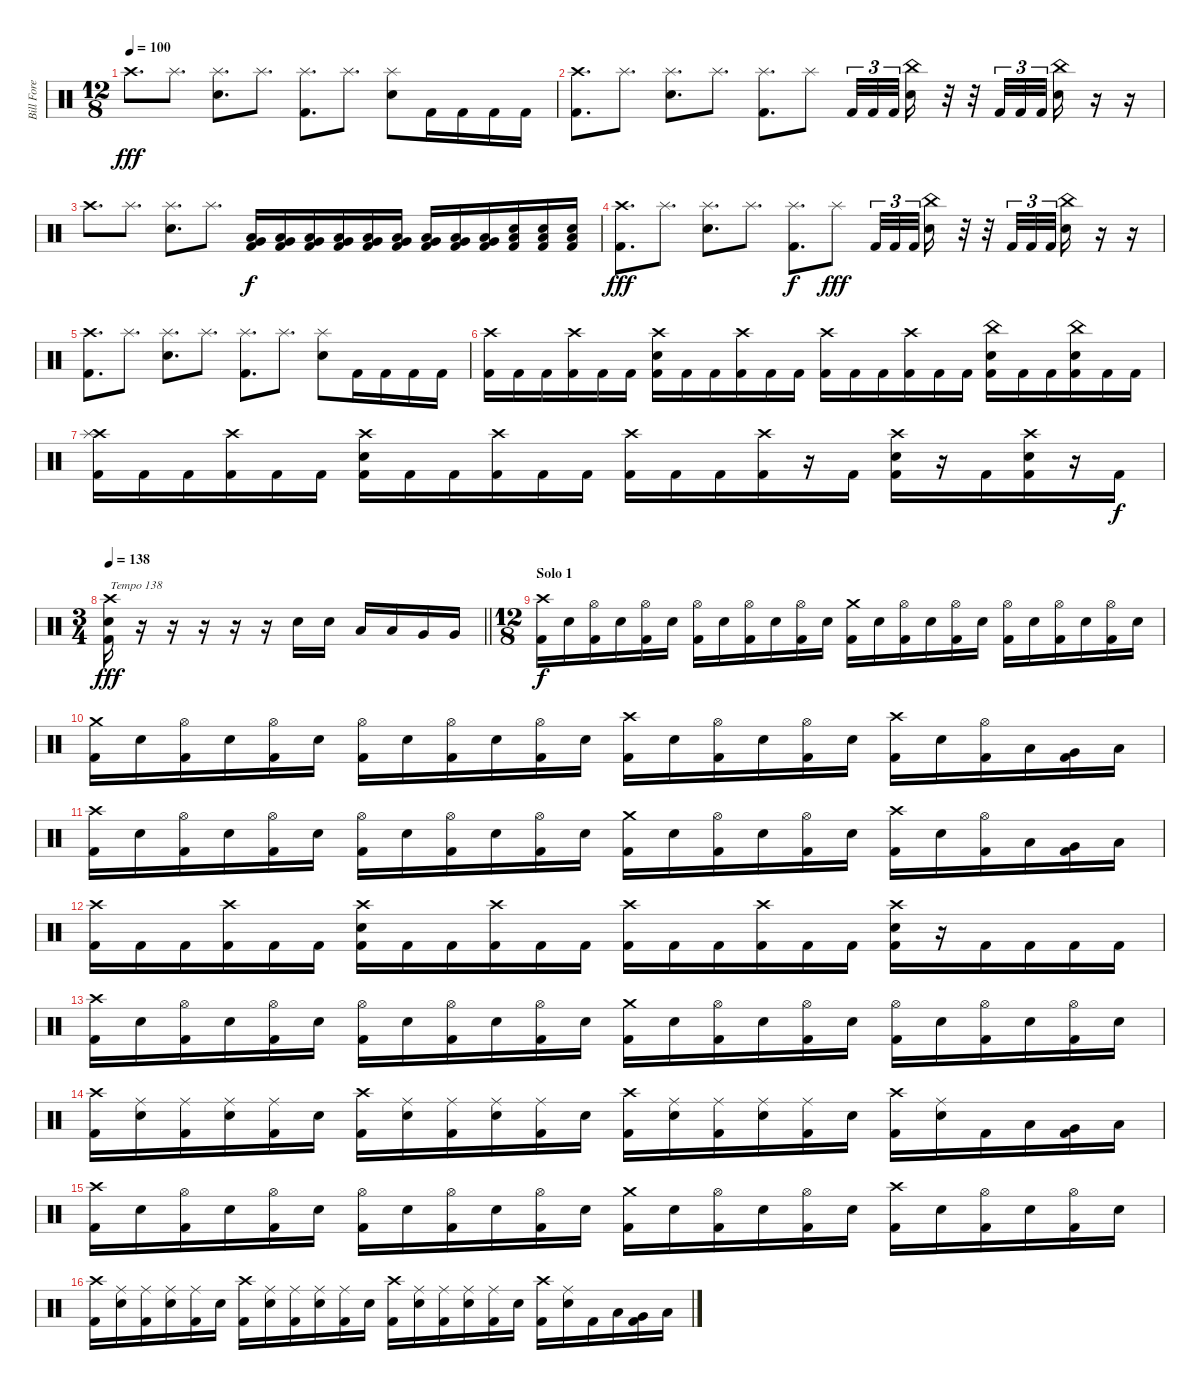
\track ("Bill Fore" "Bill Fore") {instrument percussion}
\staff {score}
\articulation defaults
\ts (12 8)
\tempo 100
\clef neutral
\ks c "Crash high (hit)".8{d dy fff} "Splash (hit)".8{d}
("Splash (hit)" "Electric Snare (hit)").8{d} "Splash (hit)".8{d} ("Splash (hit)" "Kick (hit) 2").8{d} "Splash (hit)".8{d} ("Splash (hit)" "Electric Snare (hit)").8 "Kick (hit) 2".16 "Kick (hit) 2".16 "Kick (hit) 2".16 "Kick (hit) 2".16 |
("Crash high (hit)" "Kick (hit) 2").8{d} "Splash (hit)".8{d} ("Splash (hit)" "Electric Snare (hit)").8{d} "Splash (hit)".8{d} ("Splash (hit)" "Kick (hit) 2").8{d} "Splash (hit)".8 "Kick (hit) 2".32{tu (3 2)} "Kick (hit) 2".32{tu (3 2)} "Kick (hit) 2".32{tu (3 2)} ("China (hit)" "Electric Snare (hit)").16 r.32 r.32 "Kick (hit) 2".32{tu (3 2)} "Kick (hit) 2".32{tu (3 2)} "Kick (hit) 2".32{tu (3 2) beam splitsecondary} ("China (hit)" "Electric Snare (hit)").16 r.16 r.16 |
"Crash high (hit)".8{d} "Splash (hit)".8{d} ("Splash (hit)" "Electric Snare (hit)").8{d} "Splash (hit)".8{d} ("Low Floor Tom (hit)" "Very Low Tom (hit)" "Kick (hit) 2").16{dy f} ("Low Floor Tom (hit)" "Very Low Tom (hit)" "Kick (hit) 2").16 ("Low Floor Tom (hit)" "Very Low Tom (hit)" "Kick (hit) 2").16 ("Very Low Tom (hit)" "Low Tom (hit)" "Kick (hit) 2").16 ("Very Low Tom (hit)" "Low Tom (hit)" "Kick (hit) 2").16 ("Very Low Tom (hit)" "Low Tom (hit)" "Kick (hit) 2").16 ("Low Floor Tom (hit)" "Very Low Tom (hit)" "Kick (hit) 2").16 ("Low Floor Tom (hit)" "Very Low Tom (hit)" "Kick (hit) 2").16 ("Low Floor Tom (hit)" "Very Low Tom (hit)" "Kick (hit) 2").16 ("Low Floor Tom (hit)" "Electric Snare (hit)" "Kick (hit) 2").16 ("Low Floor Tom (hit)" "Electric Snare (hit)" "Kick (hit) 2").16 ("Low Floor Tom (hit)" "Electric Snare (hit)" "Kick (hit) 2").16 |
("Crash high (hit)" "Kick (hit) 2").8{d dy fff} "Splash (hit)".8{d} ("Splash (hit)" "Electric Snare (hit)").8{d} "Splash (hit)".8{d} ("Splash (hit)" "Kick (hit) 2").8{d dy f} "Splash (hit)".8{dy fff} "Kick (hit) 2".32{tu (3 2)} "Kick (hit) 2".32{tu (3 2)} "Kick (hit) 2".32{tu (3 2)} ("China (hit)" "Electric Snare (hit)").16 r.32 r.32 "Kick (hit) 2".32{tu (3 2)} "Kick (hit) 2".32{tu (3 2)} "Kick (hit) 2".32{tu (3 2) beam splitsecondary} ("China (hit)" "Electric Snare (hit)").16 r.16 r.16 |
("Crash high (hit)" "Kick (hit) 2").8{d} "Splash (hit)".8{d} ("Splash (hit)" "Electric Snare (hit)").8{d} "Splash (hit)".8{d} ("Splash (hit)" "Kick (hit) 2").8{d} "Splash (hit)".8{d} ("Splash (hit)" "Electric Snare (hit)").8 "Kick (hit) 2".16 "Kick (hit) 2".16 "Kick (hit) 2".16 "Kick (hit) 2".16 |
("Crash high (hit)" "Kick (hit) 2").16 "Kick (hit) 2".16 "Kick (hit) 2".16 ("Crash high (hit)" "Kick (hit) 2").16 "Kick (hit) 2".16 "Kick (hit) 2".16 ("Crash high (hit)" "Electric Snare (hit)" "Kick (hit) 2").16 "Kick (hit) 2".16 "Kick (hit) 2".16 ("Crash high (hit)" "Kick (hit) 2").16 "Kick (hit) 2".16 "Kick (hit) 2".16 ("Crash high (hit)" "Kick (hit) 2").16 "Kick (hit) 2".16 "Kick (hit) 2".16 ("Crash high (hit)" "Kick (hit) 2").16 "Kick (hit) 2".16 "Kick (hit) 2".16 ("China (hit)" "Electric Snare (hit)" "Kick (hit) 2").16 "Kick (hit) 2".16 "Kick (hit) 2".16 ("China (hit)" "Electric Snare (hit)" "Kick (hit) 2").16 "Kick (hit) 2".16 "Kick (hit) 2".16 |
("Crash high (hit)" "Splash (hit)" "Kick (hit) 2").16 "Kick (hit) 2".16 "Kick (hit) 2".16 ("Crash high (hit)" "Kick (hit) 2").16 "Kick (hit) 2".16 "Kick (hit) 2".16 ("Crash high (hit)" "Electric Snare (hit)" "Kick (hit) 2").16 "Kick (hit) 2".16 "Kick (hit) 2".16 ("Crash high (hit)" "Kick (hit) 2").16 "Kick (hit) 2".16 "Kick (hit) 2".16 ("Crash high (hit)" "Kick (hit) 2").16 "Kick (hit) 2".16 "Kick (hit) 2".16 ("Crash high (hit)" "Kick (hit) 2").16 r.16 "Kick (hit) 2".16 ("Crash high (hit)" "Electric Snare (hit)" "Kick (hit) 2").16 r.16 "Kick (hit) 2".16 ("Crash high (hit)" "Electric Snare (hit)" "Kick (hit) 2").16 r.16 "Kick (hit) 2".16{dy f} |
\ts (3 4)
\tempo 138
\barLineRight lightlight
("Crash high (hit)" "Electric Snare (hit)" "Kick (hit) 2").16{txt "Tempo 138" dy fff} r.16 r.16 r.16 r.16 r.16 "Electric Snare (hit)".16 "Electric Snare (hit)".16 "Low Tom (hit)".16 "Low Tom (hit)".16 "Very Low Tom (hit)".16 "Very Low Tom (hit)".16 |
\ts (12 8)
\section ("" "Solo 1")
("Crash high (hit)" "Kick (hit) 2").16{dy f} "Electric Snare (hit)".16 ("Hi-Hat (open)" "Kick (hit) 2").16 "Electric Snare (hit)".16 ("Hi-Hat (open)" "Kick (hit) 2").16 "Electric Snare (hit)".16 ("Hi-Hat (open)" "Kick (hit) 2").16 "Electric Snare (hit)".16 ("Hi-Hat (open)" "Kick (hit) 2").16 "Electric Snare (hit)".16 ("Hi-Hat (open)" "Kick (hit) 2").16 "Electric Snare (hit)".16 ("Crash medium (hit)" "Kick (hit) 2").16 "Electric Snare (hit)".16 ("Hi-Hat (open)" "Kick (hit) 2").16 "Electric Snare (hit)".16 ("Hi-Hat (open)" "Kick (hit) 2").16 "Electric Snare (hit)".16 ("Hi-Hat (open)" "Kick (hit) 2").16 "Electric Snare (hit)".16 ("Hi-Hat (open)" "Kick (hit) 2").16 "Electric Snare (hit)".16 ("Hi-Hat (open)" "Kick (hit) 2").16 "Electric Snare (hit)".16 |
("Crash medium (hit)" "Kick (hit) 2").16 "Electric Snare (hit)".16 ("Hi-Hat (open)" "Kick (hit) 2").16 "Electric Snare (hit)".16 ("Hi-Hat (open)" "Kick (hit) 2").16 "Electric Snare (hit)".16 ("Hi-Hat (open)" "Kick (hit) 2").16 "Electric Snare (hit)".16 ("Hi-Hat (open)" "Kick (hit) 2").16 "Electric Snare (hit)".16 ("Hi-Hat (open)" "Kick (hit) 2").16 "Electric Snare (hit)".16 ("Crash high (hit)" "Kick (hit) 2").16 "Electric Snare (hit)".16 ("Hi-Hat (open)" "Kick (hit) 2").16 "Electric Snare (hit)".16 ("Hi-Hat (open)" "Kick (hit) 2").16 "Electric Snare (hit)".16 ("Crash high (hit)" "Kick (hit) 2").16 "Electric Snare (hit)".16 ("Hi-Hat (open)" "Kick (hit) 2").16 "Low Tom (hit)".16 ("Very Low Tom (hit)" "Kick (hit) 2").16 "Low Floor Tom (hit)".16 |
("Crash high (hit)" "Kick (hit) 2").16 "Electric Snare (hit)".16 ("Hi-Hat (open)" "Kick (hit) 2").16 "Electric Snare (hit)".16 ("Hi-Hat (open)" "Kick (hit) 2").16 "Electric Snare (hit)".16 ("Hi-Hat (open)" "Kick (hit) 2").16 "Electric Snare (hit)".16 ("Hi-Hat (open)" "Kick (hit) 2").16 "Electric Snare (hit)".16 ("Hi-Hat (open)" "Kick (hit) 2").16 "Electric Snare (hit)".16 ("Crash medium (hit)" "Kick (hit) 2").16 "Electric Snare (hit)".16 ("Hi-Hat (open)" "Kick (hit) 2").16 "Electric Snare (hit)".16 ("Hi-Hat (open)" "Kick (hit) 2").16 "Electric Snare (hit)".16 ("Crash high (hit)" "Kick (hit) 2").16 "Electric Snare (hit)".16 ("Hi-Hat (open)" "Kick (hit) 2").16 "Low Tom (hit)".16 ("Very Low Tom (hit)" "Kick (hit) 2").16 "Low Floor Tom (hit)".16 |
("Crash high (hit)" "Kick (hit) 2").16 "Kick (hit) 2".16 "Kick (hit) 2".16 ("Crash high (hit)" "Kick (hit) 2").16 "Kick (hit) 2".16 "Kick (hit) 2".16 ("Crash high (hit)" "Electric Snare (hit)" "Kick (hit) 2").16 "Kick (hit) 2".16 "Kick (hit) 2".16 ("Crash high (hit)" "Kick (hit) 2").16 "Kick (hit) 2".16 "Kick (hit) 2".16 ("Crash high (hit)" "Kick (hit) 2").16 "Kick (hit) 2".16 "Kick (hit) 2".16 ("Crash high (hit)" "Kick (hit) 2").16 "Kick (hit) 2".16 "Kick (hit) 2".16 ("Crash high (hit)" "Electric Snare (hit)" "Kick (hit) 2").16 r.16 "Kick (hit) 2".16 "Kick (hit) 2".16 "Kick (hit) 2".16 "Kick (hit) 2".16 |
("Crash high (hit)" "Kick (hit) 2").16 "Electric Snare (hit)".16 ("Hi-Hat (open)" "Kick (hit) 2").16 "Electric Snare (hit)".16 ("Hi-Hat (open)" "Kick (hit) 2").16 "Electric Snare (hit)".16 ("Hi-Hat (open)" "Kick (hit) 2").16 "Electric Snare (hit)".16 ("Hi-Hat (open)" "Kick (hit) 2").16 "Electric Snare (hit)".16 ("Hi-Hat (open)" "Kick (hit) 2").16 "Electric Snare (hit)".16 ("Crash medium (hit)" "Kick (hit) 2").16 "Electric Snare (hit)".16 ("Hi-Hat (open)" "Kick (hit) 2").16 "Electric Snare (hit)".16 ("Hi-Hat (open)" "Kick (hit) 2").16 "Electric Snare (hit)".16 ("Hi-Hat (open)" "Kick (hit) 2").16 "Electric Snare (hit)".16 ("Hi-Hat (open)" "Kick (hit) 2").16 "Electric Snare (hit)".16 ("Hi-Hat (open)" "Kick (hit) 2").16 "Electric Snare (hit)".16 |
("Crash high (hit)" "Kick (hit) 2").16 ("Ride (middle)" "Electric Snare (hit)").16 ("Ride (middle)" "Kick (hit) 2").16 ("Ride (middle)" "Electric Snare (hit)").16 ("Ride (middle)" "Kick (hit) 2").16 "Electric Snare (hit)".16 ("Crash high (hit)" "Kick (hit) 2").16 ("Ride (middle)" "Electric Snare (hit)").16 ("Ride (middle)" "Kick (hit) 2").16 ("Ride (middle)" "Electric Snare (hit)").16 ("Ride (middle)" "Kick (hit) 2").16 "Electric Snare (hit)".16 ("Crash high (hit)" "Kick (hit) 2").16 ("Ride (middle)" "Electric Snare (hit)").16 ("Ride (middle)" "Kick (hit) 2").16 ("Ride (middle)" "Electric Snare (hit)").16 ("Ride (middle)" "Kick (hit) 2").16 "Electric Snare (hit)".16 ("Crash high (hit)" "Kick (hit) 2").16 ("Ride (middle)" "Electric Snare (hit)").16 "Kick (hit) 2".16 "Low Tom (hit)".16 ("Very Low Tom (hit)" "Kick (hit) 2").16 "Low Floor Tom (hit)".16 |
("Crash high (hit)" "Kick (hit) 2").16 "Electric Snare (hit)".16 ("Hi-Hat (open)" "Kick (hit) 2").16 "Electric Snare (hit)".16 ("Hi-Hat (open)" "Kick (hit) 2").16 "Electric Snare (hit)".16 ("Hi-Hat (open)" "Kick (hit) 2").16 "Electric Snare (hit)".16 ("Hi-Hat (open)" "Kick (hit) 2").16 "Electric Snare (hit)".16 ("Hi-Hat (open)" "Kick (hit) 2").16 "Electric Snare (hit)".16 ("Crash medium (hit)" "Kick (hit) 2").16 "Electric Snare (hit)".16 ("Hi-Hat (open)" "Kick (hit) 2").16 "Electric Snare (hit)".16 ("Hi-Hat (open)" "Kick (hit) 2").16 "Electric Snare (hit)".16 ("Crash high (hit)" "Kick (hit) 2").16 "Electric Snare (hit)".16 ("Hi-Hat (open)" "Kick (hit) 2").16 "Electric Snare (hit)".16 ("Hi-Hat (open)" "Kick (hit) 2").16 "Electric Snare (hit)".16 |
("Crash high (hit)" "Kick (hit) 2").16 ("Ride (middle)" "Electric Snare (hit)").16 ("Ride (middle)" "Kick (hit) 2").16 ("Ride (middle)" "Electric Snare (hit)").16 ("Ride (middle)" "Kick (hit) 2").16 "Electric Snare (hit)".16 ("Crash high (hit)" "Kick (hit) 2").16 ("Ride (middle)" "Electric Snare (hit)").16 ("Ride (middle)" "Kick (hit) 2").16 ("Ride (middle)" "Electric Snare (hit)").16 ("Ride (middle)" "Kick (hit) 2").16 "Electric Snare (hit)".16 ("Crash high (hit)" "Kick (hit) 2").16 ("Ride (middle)" "Electric Snare (hit)").16 ("Ride (middle)" "Kick (hit) 2").16 ("Ride (middle)" "Electric Snare (hit)").16 ("Ride (middle)" "Kick (hit) 2").16 "Electric Snare (hit)".16 ("Crash high (hit)" "Kick (hit) 2").16 ("Ride (middle)" "Electric Snare (hit)").16 "Kick (hit) 2".16 "Low Tom (hit)".16 ("Very Low Tom (hit)" "Kick (hit) 2").16 "Low Floor Tom (hit)".16
